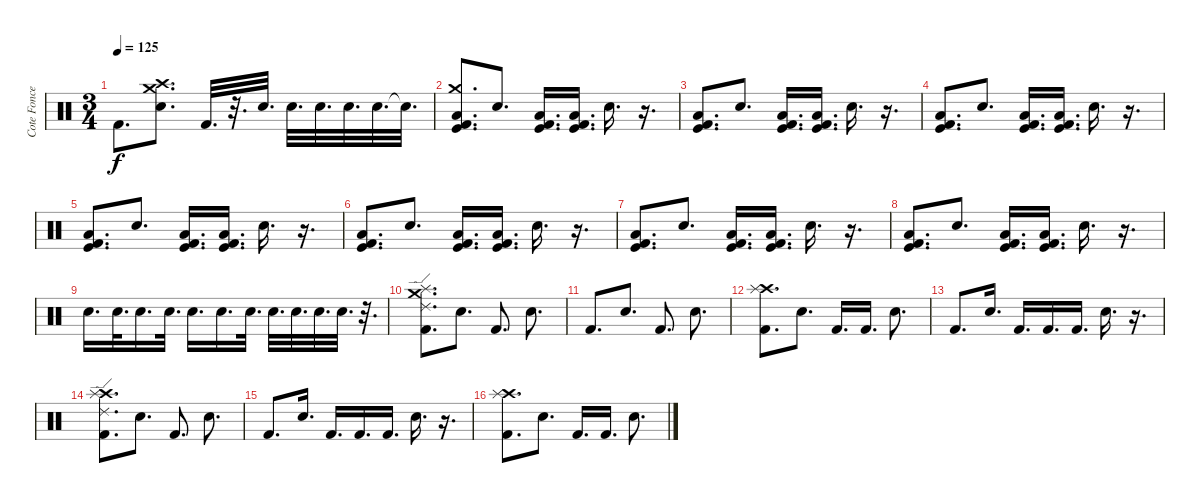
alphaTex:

\track ("Cote Foncea" "Cote Fonce") {instrument percussion}
\staff {score}
\articulation defaults
\ts (3 4)
\tempo 125
\clef neutral
\ks c "Kick (hit) 2".8{d dy f}
("Crash high (hit)" "Crash medium (hit)" "Snare (hit) 2").8{d} "Kick (hit) 2".32{d} r.32{d} "Snare (hit) 2".32{d} "Snare (hit) 2".32{d} "Snare (hit) 2".32{d} "Snare (hit) 2".32{d} "Snare (hit) 2".32{d} "Snare (hit) 2"{t}.32{d} |
("Crash medium (hit)" "Low Floor Tom (hit)" "Kick (hit) 2" "Kick (hit)").8{d} "Snare (hit) 2".8{d} ("Low Floor Tom (hit)" "Kick (hit) 2" "Kick (hit)").16{d} ("Low Floor Tom (hit)" "Kick (hit) 2" "Kick (hit)").16{d} "Snare (hit) 2".16{d} r.16{d} |
("Low Floor Tom (hit)" "Kick (hit) 2" "Kick (hit)").8{d} "Snare (hit) 2".8{d} ("Low Floor Tom (hit)" "Kick (hit) 2" "Kick (hit)").16{d} ("Low Floor Tom (hit)" "Kick (hit) 2" "Kick (hit)").16{d} "Snare (hit) 2".16{d} r.16{d} |
("Low Floor Tom (hit)" "Kick (hit) 2" "Kick (hit)").8{d} "Snare (hit) 2".8{d} ("Low Floor Tom (hit)" "Kick (hit) 2" "Kick (hit)").16{d} ("Low Floor Tom (hit)" "Kick (hit) 2" "Kick (hit)").16{d} "Snare (hit) 2".16{d} r.16{d} |
("Low Floor Tom (hit)" "Kick (hit) 2" "Kick (hit)").8{d} "Snare (hit) 2".8{d} ("Low Floor Tom (hit)" "Kick (hit) 2" "Kick (hit)").16{d} ("Low Floor Tom (hit)" "Kick (hit) 2" "Kick (hit)").16{d} "Snare (hit) 2".16{d} r.16{d} |
("Low Floor Tom (hit)" "Kick (hit) 2" "Kick (hit)").8{d} "Snare (hit) 2".8{d} ("Low Floor Tom (hit)" "Kick (hit) 2" "Kick (hit)").16{d} ("Low Floor Tom (hit)" "Kick (hit) 2" "Kick (hit)").16{d} "Snare (hit) 2".16{d} r.16{d} |
("Low Floor Tom (hit)" "Kick (hit) 2" "Kick (hit)").8{d} "Snare (hit) 2".8{d} ("Low Floor Tom (hit)" "Kick (hit) 2" "Kick (hit)").16{d} ("Low Floor Tom (hit)" "Kick (hit) 2" "Kick (hit)").16{d} "Snare (hit) 2".16{d} r.16{d} |
("Low Floor Tom (hit)" "Kick (hit) 2" "Kick (hit)").8{d} "Snare (hit) 2".8{d} ("Low Floor Tom (hit)" "Kick (hit) 2" "Kick (hit)").16{d} ("Low Floor Tom (hit)" "Kick (hit) 2" "Kick (hit)").16{d} "Snare (hit) 2".16{d} r.16{d} |
"Snare (hit) 2".16{d} "Snare (hit) 2".32{d} "Snare (hit) 2".16{d} "Snare (hit) 2".32{d} "Snare (hit) 2".16{d} "Snare (hit) 2".16{d} "Snare (hit) 2".32{d} "Snare (hit) 2".32{d} "Snare (hit) 2".32{d} "Snare (hit) 2".32{d} "Snare (hit) 2".32{d} r.32{d} |
("Ride (edge) 2" "Crash medium (hit)" "Splash (hit)" "Kick (hit) 2").8{d volume 16} "Snare (hit) 2".8{d} "Kick (hit) 2".8{d} "Snare (hit) 2".8{d} |
"Kick (hit) 2".8{d} "Snare (hit) 2".8{d} "Kick (hit) 2".8{d} "Snare (hit) 2".8{d} |
("Crash high (hit)" "Splash (hit)" "Kick (hit) 2").8{d} "Snare (hit) 2".8{d} "Kick (hit) 2".16{d} "Kick (hit) 2".16{d} "Snare (hit) 2".8{d} |
"Kick (hit) 2".8{d} "Snare (hit) 2".16{d} "Kick (hit) 2".16{d} "Kick (hit) 2".16{d} "Kick (hit) 2".16{d} "Snare (hit) 2".16{d} r.16{d} |
("Ride (edge) 2" "Crash high (hit)" "Splash (hit)" "Kick (hit) 2").8{d} "Snare (hit) 2".8{d} "Kick (hit) 2".8{d} "Snare (hit) 2".8{d} |
"Kick (hit) 2".8{d} "Snare (hit) 2".16{d} "Kick (hit) 2".16{d} "Kick (hit) 2".16{d} "Kick (hit) 2".16{d} "Snare (hit) 2".16{d} r.16{d} |
("Crash high (hit)" "Splash (hit)" "Kick (hit) 2").8{d} "Snare (hit) 2".8{d} "Kick (hit) 2".16{d} "Kick (hit) 2".16{d} "Snare (hit) 2".8{d}
